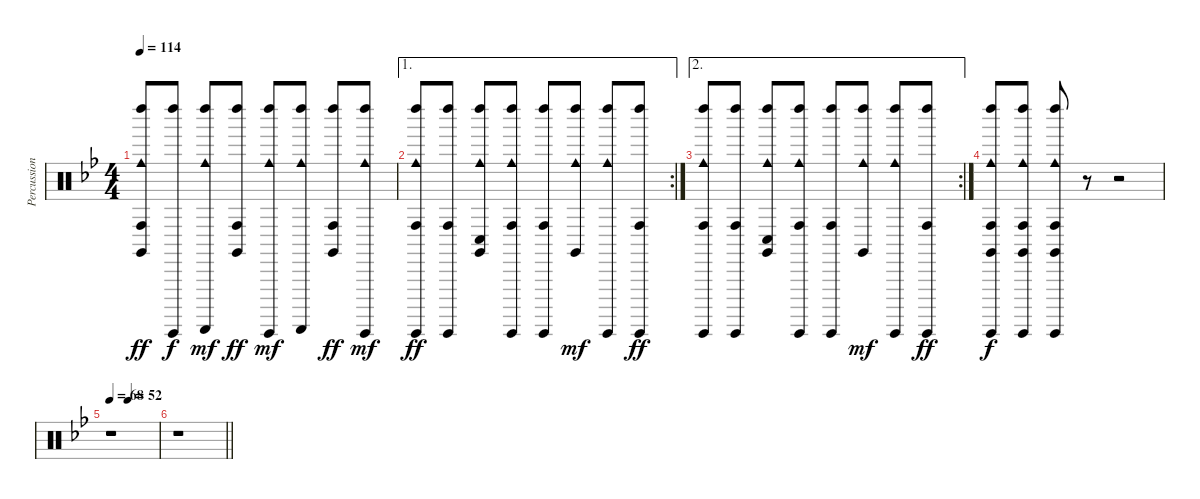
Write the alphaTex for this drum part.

\track ("Percussion" "Percussion") {instrument percussion}
\staff {score}
\articulation defaults
\ts (4 4)
\tempo 114
\clef neutral
\ks gminor
("Claves (hit)" "Cowbell medium (hit)" "Conga high (hit)" "Left Maraca (hit)").8{dy ff} ("Guiro (hit)" "Left Maraca (hit)").8{dy f} ("Guiro (scrap-return)" "Cowbell medium (hit)" "Left Maraca (hit)").8{dy mf} ("Claves (hit)" "Conga high (hit)" "Left Maraca (hit)").8{dy ff} ("Guiro (hit)" "Cowbell medium (hit)" "Left Maraca (hit)").8{dy mf} ("Guiro (scrap-return)" "Cowbell medium (hit)" "Left Maraca (hit)").8 ("Claves (hit)" "Conga high (hit)" "Left Maraca (hit)").8{dy ff} ("Guiro (hit)" "Cowbell medium (hit)" "Left Maraca (hit)").8{dy mf} |
\ae 1
\rc 2
("Guiro (hit)" "Cowbell medium (hit)" "Conga high (hit)" "Left Maraca (hit)").8{dy ff} ("Guiro (hit)" "Conga high (hit)" "Left Maraca (hit)").8 ("Claves (hit)" "Cowbell medium (hit)" "Conga low (hit)" "Left Maraca (hit)").8 ("Guiro (hit)" "Cowbell medium (hit)" "Conga high (hit)" "Left Maraca (hit)").8 ("Guiro (hit)" "Conga high (hit)" "Left Maraca (hit)").8 ("Claves (hit)" "Cowbell medium (hit)" "Left Maraca (hit)").8{dy mf} ("Guiro (hit)" "Cowbell medium (hit)" "Left Maraca (hit)").8 ("Guiro (hit)" "Conga high (hit)" "Left Maraca (hit)").8{dy ff} |
\ae 2
\rc 2
("Guiro (hit)" "Cowbell medium (hit)" "Conga high (hit)" "Left Maraca (hit)").8 ("Guiro (hit)" "Conga high (hit)" "Left Maraca (hit)").8 ("Claves (hit)" "Cowbell medium (hit)" "Conga low (hit)" "Left Maraca (hit)").8 ("Guiro (hit)" "Cowbell medium (hit)" "Conga high (hit)" "Left Maraca (hit)").8 ("Guiro (hit)" "Conga high (hit)" "Left Maraca (hit)").8 ("Claves (hit)" "Cowbell medium (hit)" "Left Maraca (hit)").8{dy mf} ("Guiro (hit)" "Cowbell medium (hit)" "Left Maraca (hit)").8 ("Guiro (hit)" "Conga high (hit)" "Left Maraca (hit)").8{dy ff} |
("Claves (hit)" "Guiro (hit)" "Cowbell medium (hit)" "Conga high (hit)" "Left Maraca (hit)").8{dy f} ("Claves (hit)" "Guiro (hit)" "Cowbell medium (hit)" "Conga high (hit)" "Left Maraca (hit)").8 ("Claves (hit)" "Guiro (hit)" "Cowbell medium (hit)" "Conga high (hit)" "Left Maraca (hit)").8 r.8 r.2 |
\tempo 68
\tempo (52 0.375)
r.1 |
\barLineRight lightlight
r.1
